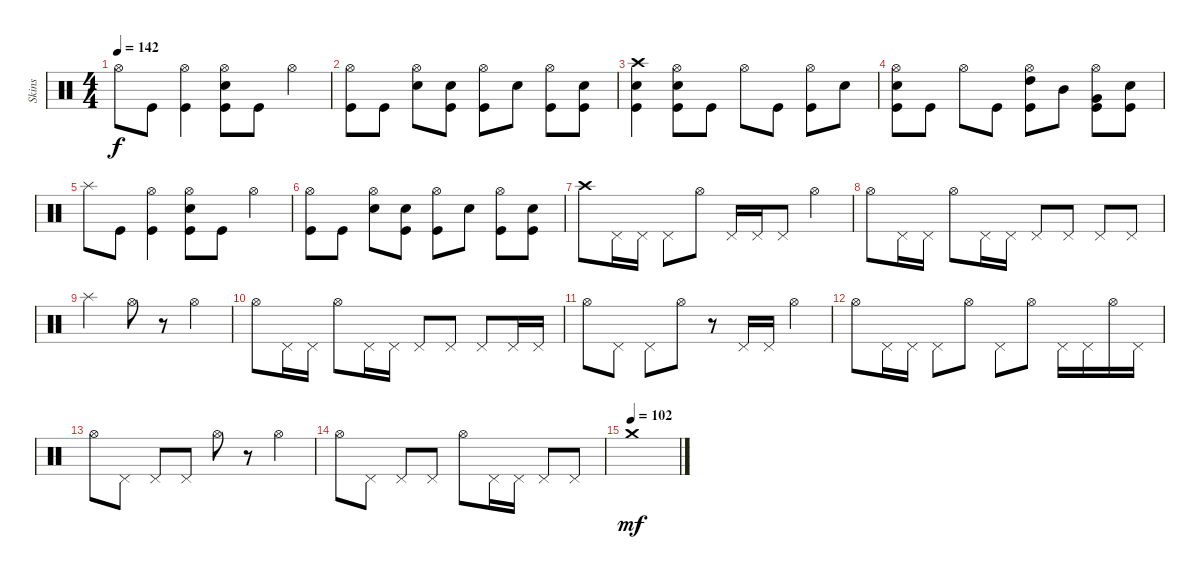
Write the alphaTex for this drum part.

\track ("Skins" "Skins") {instrument percussion}
\staff {score}
\articulation defaults
\ts (4 4)
\tempo 142
\clef neutral
\ks c "Hi-Hat (open)".8{dy f} "Kick (hit)".8
("Hi-Hat (open)" "Kick (hit)").4 ("Hi-Hat (open)" "Electric Snare (hit)" "Kick (hit)").8 "Kick (hit)".8 "Hi-Hat (open)".4 |
("Hi-Hat (open)" "Kick (hit)").8 "Kick (hit)".8 ("Hi-Hat (open)" "Snare (hit) 2").8 ("Electric Snare (hit)" "Kick (hit)").8 ("Hi-Hat (open)" "Kick (hit)").8 "Electric Snare (hit)".8 ("Hi-Hat (open)" "Kick (hit)").8 ("Snare (hit) 2" "Kick (hit)").8 |
("Crash high (hit)" "Electric Snare (hit)" "Kick (hit)").4 ("Hi-Hat (open)" "Electric Snare (hit)" "Kick (hit)").8 "Kick (hit)".8 "Hi-Hat (open)".8 "Kick (hit)".8 ("Hi-Hat (open)" "Kick (hit)").8 "Snare (hit) 2".8 |
("Hi-Hat (open)" "Electric Snare (hit)" "Kick (hit)").8 "Kick (hit)".8 "Hi-Hat (open)".8 "Kick (hit)".8 ("Hi-Hat (open)" "High Tom (hit)" "Kick (hit)").8 "Mid Tom (hit)".8 ("Hi-Hat (open)" "Very Low Tom (hit)" "Kick (hit)").8 ("Electric Snare (hit)" "Kick (hit)").8 |
"Splash (hit)".8 "Kick (hit)".8 ("Hi-Hat (open)" "Kick (hit)").4 ("Hi-Hat (open)" "Electric Snare (hit)" "Kick (hit)").8 "Kick (hit)".8 "Hi-Hat (open)".4 |
("Hi-Hat (open)" "Kick (hit)").8 "Kick (hit)".8 ("Hi-Hat (open)" "Snare (hit) 2").8 ("Electric Snare (hit)" "Kick (hit)").8 ("Hi-Hat (open)" "Kick (hit)").8 "Electric Snare (hit)".8 ("Hi-Hat (open)" "Kick (hit)").8 ("Snare (hit) 2" "Kick (hit)").8 |
"Crash high (hit)".8 "Pedal Hi-Hat (hit)".16 "Pedal Hi-Hat (hit)".16 "Pedal Hi-Hat (hit)".8 "Hi-Hat (open)".8 "Pedal Hi-Hat (hit)".16 "Pedal Hi-Hat (hit)".16 "Pedal Hi-Hat (hit)".8 "Hi-Hat (open)".4 |
"Hi-Hat (open)".8 "Pedal Hi-Hat (hit)".16 "Pedal Hi-Hat (hit)".16 "Hi-Hat (open)".8 "Pedal Hi-Hat (hit)".16 "Pedal Hi-Hat (hit)".16 "Pedal Hi-Hat (hit)".8 "Pedal Hi-Hat (hit)".8 "Pedal Hi-Hat (hit)".8 "Pedal Hi-Hat (hit)".8 |
"Splash (hit)".2 "Hi-Hat (open)".8 r.8 "Hi-Hat (open)".4 |
"Hi-Hat (open)".8 "Pedal Hi-Hat (hit)".16 "Pedal Hi-Hat (hit)".16 "Hi-Hat (open)".8 "Pedal Hi-Hat (hit)".16 "Pedal Hi-Hat (hit)".16 "Pedal Hi-Hat (hit)".8 "Pedal Hi-Hat (hit)".8 "Pedal Hi-Hat (hit)".8 "Pedal Hi-Hat (hit)".16 "Pedal Hi-Hat (hit)".16 |
"Hi-Hat (open)".8 "Pedal Hi-Hat (hit)".8 "Pedal Hi-Hat (hit)".8 "Hi-Hat (open)".8 r.8 "Pedal Hi-Hat (hit)".16 "Pedal Hi-Hat (hit)".16 "Hi-Hat (open)".4 |
"Hi-Hat (open)".8 "Pedal Hi-Hat (hit)".16 "Pedal Hi-Hat (hit)".16 "Pedal Hi-Hat (hit)".8 "Hi-Hat (open)".8 "Pedal Hi-Hat (hit)".8 "Hi-Hat (open)".8 "Pedal Hi-Hat (hit)".16 "Pedal Hi-Hat (hit)".16 "Hi-Hat (open)".16 "Pedal Hi-Hat (hit)".16 |
"Hi-Hat (open)".8 "Pedal Hi-Hat (hit)".8 "Pedal Hi-Hat (hit)".8 "Pedal Hi-Hat (hit)".8 "Hi-Hat (open)".8 r.8 "Hi-Hat (open)".4 |
"Hi-Hat (open)".8 "Pedal Hi-Hat (hit)".8 "Pedal Hi-Hat (hit)".8 "Pedal Hi-Hat (hit)".8 "Hi-Hat (open)".8 "Pedal Hi-Hat (hit)".16 "Pedal Hi-Hat (hit)".16 "Pedal Hi-Hat (hit)".8 "Pedal Hi-Hat (hit)".8 |
\tempo (102)
"Crash medium (hit)".1{dy mf}
